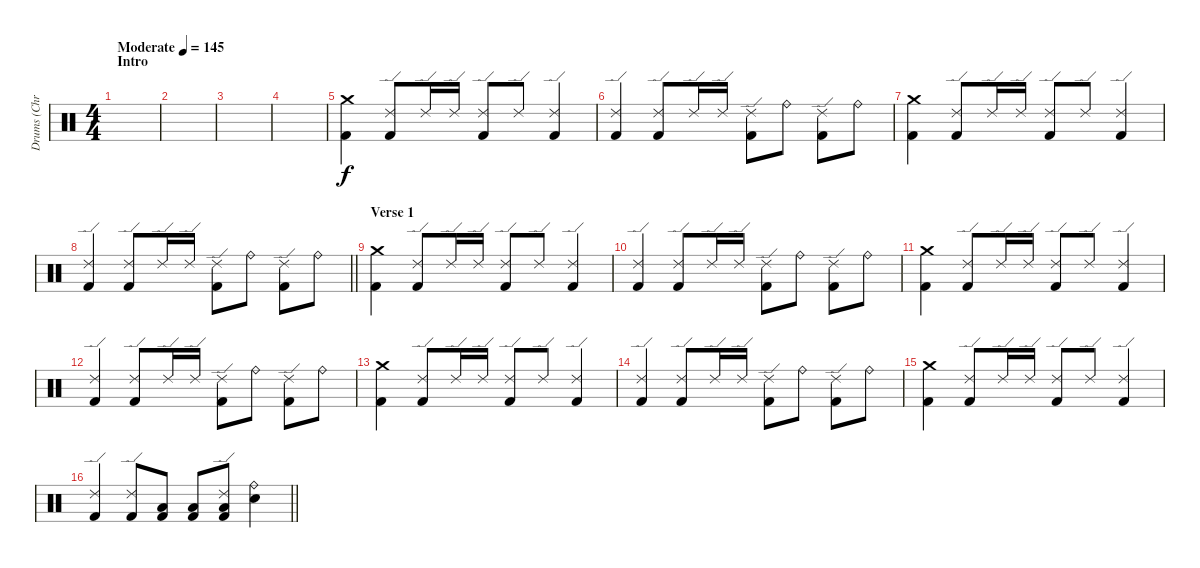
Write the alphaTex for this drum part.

\track ("Drums (Chris)" "Drums (Chr") {instrument percussion}
\staff {score}
\articulation defaults
\ts (4 4)
\section ("" "Intro")
\tempo (145 "Moderate")
\clef neutral
\ks c
|
|
|
|
("Crash medium (hit)" "Kick (hit) 2").4 ("Ride (edge) 2" "Kick (hit) 2").8 "Ride (edge) 2".16 "Ride (edge) 2".16 ("Ride (edge) 2" "Kick (hit) 2").8 "Ride (edge) 2".8 ("Ride (edge) 2" "Kick (hit) 2").4 |
("Ride (edge) 2" "Kick (hit) 2").4 ("Ride (edge) 2" "Kick (hit) 2").8 "Ride (edge) 2".16 "Ride (edge) 2".16 ("Ride (edge) 2" "Kick (hit) 2").8 "Ride (bell)".8 ("Ride (edge) 2" "Kick (hit) 2").8 "Ride (bell)".8 |
("Crash medium (hit)" "Kick (hit) 2").4 ("Ride (edge) 2" "Kick (hit) 2").8 "Ride (edge) 2".16 "Ride (edge) 2".16 ("Ride (edge) 2" "Kick (hit) 2").8 "Ride (edge) 2".8 ("Ride (edge) 2" "Kick (hit) 2").4 |
\barLineRight lightlight
("Ride (edge) 2" "Kick (hit) 2").4 ("Ride (edge) 2" "Kick (hit) 2").8 "Ride (edge) 2".16 "Ride (edge) 2".16 ("Ride (edge) 2" "Kick (hit) 2").8 "Ride (bell)".8 ("Ride (edge) 2" "Kick (hit) 2").8 "Ride (bell)".8 |
\section ("" "Verse 1")
("Crash medium (hit)" "Kick (hit) 2").4 ("Ride (edge) 2" "Kick (hit) 2").8 "Ride (edge) 2".16 "Ride (edge) 2".16 ("Ride (edge) 2" "Kick (hit) 2").8 "Ride (edge) 2".8 ("Ride (edge) 2" "Kick (hit) 2").4 |
("Ride (edge) 2" "Kick (hit) 2").4 ("Ride (edge) 2" "Kick (hit) 2").8 "Ride (edge) 2".16 "Ride (edge) 2".16 ("Ride (edge) 2" "Kick (hit) 2").8 "Ride (bell)".8 ("Ride (edge) 2" "Kick (hit) 2").8 "Ride (bell)".8 |
("Crash medium (hit)" "Kick (hit) 2").4 ("Ride (edge) 2" "Kick (hit) 2").8 "Ride (edge) 2".16 "Ride (edge) 2".16 ("Ride (edge) 2" "Kick (hit) 2").8 "Ride (edge) 2".8 ("Ride (edge) 2" "Kick (hit) 2").4 |
("Ride (edge) 2" "Kick (hit) 2").4 ("Ride (edge) 2" "Kick (hit) 2").8 "Ride (edge) 2".16 "Ride (edge) 2".16 ("Ride (edge) 2" "Kick (hit) 2").8 "Ride (bell)".8 ("Ride (edge) 2" "Kick (hit) 2").8 "Ride (bell)".8 |
("Crash medium (hit)" "Kick (hit) 2").4 ("Ride (edge) 2" "Kick (hit) 2").8 "Ride (edge) 2".16 "Ride (edge) 2".16 ("Ride (edge) 2" "Kick (hit) 2").8 "Ride (edge) 2".8 ("Ride (edge) 2" "Kick (hit) 2").4 |
("Ride (edge) 2" "Kick (hit) 2").4 ("Ride (edge) 2" "Kick (hit) 2").8 "Ride (edge) 2".16 "Ride (edge) 2".16 ("Ride (edge) 2" "Kick (hit) 2").8 "Ride (bell)".8 ("Ride (edge) 2" "Kick (hit) 2").8 "Ride (bell)".8 |
("Crash medium (hit)" "Kick (hit) 2").4 ("Ride (edge) 2" "Kick (hit) 2").8 "Ride (edge) 2".16 "Ride (edge) 2".16 ("Ride (edge) 2" "Kick (hit) 2").8 "Ride (edge) 2".8 ("Ride (edge) 2" "Kick (hit) 2").4 |
\barLineRight lightlight
("Ride (edge) 2" "Kick (hit) 2").4 ("Ride (edge) 2" "Kick (hit) 2").8 ("Low Floor Tom (hit)" "Kick (hit) 2").8 ("Low Floor Tom (hit)" "Kick (hit) 2").8 ("Ride (edge) 2" "Low Floor Tom (hit)" "Kick (hit) 2").8 ("Ride (bell)" "Electric Snare (hit)").4
